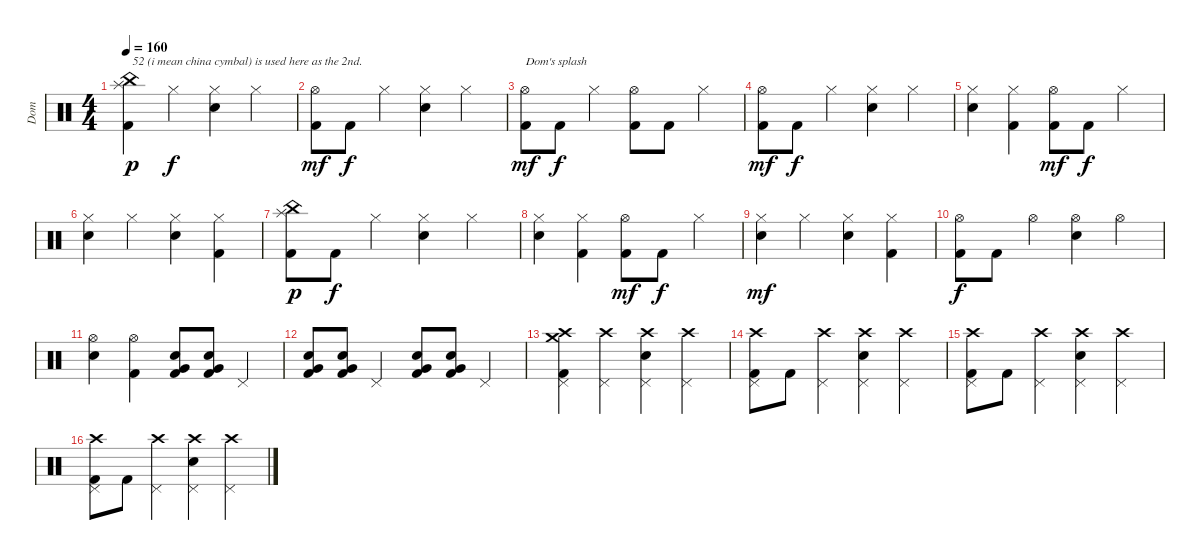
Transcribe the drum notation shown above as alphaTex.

\track ("Dom" "Dom") {instrument percussion}
\staff {score}
\articulation defaults
\ts (4 4)
\tempo 160
\clef neutral
\ks c
("Splash (hit)" "Kick (hit) 2" "China (hit)").4{txt "52 (i mean china cymbal) is used here as the 2nd." dy p} "Hi-Hat (closed)".4{dy f} ("Hi-Hat (closed)" "Snare (hit) 2").4 "Hi-Hat (closed)".4 |
("Hi-Hat (open)" "Kick (hit) 2").8{dy mf} "Kick (hit) 2".8{dy f} "Hi-Hat (closed)".4 ("Hi-Hat (closed)" "Snare (hit) 2").4 "Hi-Hat (closed)".4 |
("Hi-Hat (open)" "Kick (hit) 2").8{txt "Dom's splash" dy mf} "Kick (hit) 2".8{dy f} "Hi-Hat (closed)".4 ("Hi-Hat (open)" "Kick (hit) 2").8 "Kick (hit) 2".8 "Hi-Hat (closed)".4 |
("Hi-Hat (open)" "Kick (hit) 2").8{dy mf} "Kick (hit) 2".8{dy f} "Hi-Hat (closed)".4 ("Hi-Hat (closed)" "Snare (hit) 2").4 "Hi-Hat (closed)".4 |
("Hi-Hat (closed)" "Snare (hit) 2").4 ("Hi-Hat (closed)" "Kick (hit) 2").4 ("Hi-Hat (open)" "Kick (hit) 2").8{dy mf} "Kick (hit) 2".8{dy f} "Hi-Hat (closed)".4 |
("Hi-Hat (closed)" "Snare (hit) 2").4 "Hi-Hat (closed)".4 ("Hi-Hat (closed)" "Snare (hit) 2").4 ("Hi-Hat (closed)" "Kick (hit) 2").4 |
("Splash (hit)" "Kick (hit) 2" "China (hit)").8{dy p} "Kick (hit) 2".8{dy f} "Hi-Hat (closed)".4 ("Hi-Hat (closed)" "Snare (hit) 2").4 "Hi-Hat (closed)".4 |
("Hi-Hat (closed)" "Snare (hit) 2").4 ("Hi-Hat (closed)" "Kick (hit) 2").4 ("Hi-Hat (open)" "Kick (hit) 2").8{dy mf} "Kick (hit) 2".8{dy f} "Hi-Hat (closed)".4 |
("Hi-Hat (closed)" "Snare (hit) 2").4{dy mf} "Hi-Hat (closed)".4 ("Hi-Hat (closed)" "Snare (hit) 2").4 ("Hi-Hat (closed)" "Kick (hit) 2").4 |
("Hi-Hat (open)" "Kick (hit) 2").8{dy f} "Kick (hit) 2".8 "Hi-Hat (open)".4 ("Hi-Hat (open)" "Snare (hit) 2").4 "Hi-Hat (open)".4 |
("Hi-Hat (open)" "Snare (hit) 2").4 ("Hi-Hat (open)" "Kick (hit) 2").4 ("Very Low Tom (hit)" "Kick (hit) 2" "Snare (hit) 2").8 ("Very Low Tom (hit)" "Kick (hit) 2" "Snare (hit) 2").8 "Pedal Hi-Hat (hit)".4 |
("Very Low Tom (hit)" "Kick (hit) 2" "Snare (hit) 2").8 ("Very Low Tom (hit)" "Kick (hit) 2" "Snare (hit) 2").8 "Pedal Hi-Hat (hit)".4 ("Very Low Tom (hit)" "Kick (hit) 2" "Snare (hit) 2").8 ("Very Low Tom (hit)" "Kick (hit) 2" "Snare (hit) 2").8 "Pedal Hi-Hat (hit)".4 |
("Crash high (hit)" "Kick (hit) 2" "Crash medium (hit)" "Pedal Hi-Hat (hit)").4 ("Crash high (hit)" "Pedal Hi-Hat (hit)").4 ("Crash high (hit)" "Snare (hit) 2" "Pedal Hi-Hat (hit)").4 ("Crash high (hit)" "Pedal Hi-Hat (hit)").4 |
("Crash high (hit)" "Kick (hit) 2" "Pedal Hi-Hat (hit)").8 "Kick (hit) 2".8 ("Crash high (hit)" "Pedal Hi-Hat (hit)").4 ("Crash high (hit)" "Snare (hit) 2" "Pedal Hi-Hat (hit)").4 ("Crash high (hit)" "Pedal Hi-Hat (hit)").4 |
("Crash high (hit)" "Kick (hit) 2" "Pedal Hi-Hat (hit)").8 "Kick (hit) 2".8 ("Crash high (hit)" "Pedal Hi-Hat (hit)").4 ("Crash high (hit)" "Snare (hit) 2" "Pedal Hi-Hat (hit)").4 ("Crash high (hit)" "Pedal Hi-Hat (hit)").4 |
("Crash high (hit)" "Kick (hit) 2" "Pedal Hi-Hat (hit)").8 "Kick (hit) 2".8 ("Crash high (hit)" "Pedal Hi-Hat (hit)").4 ("Crash high (hit)" "Snare (hit) 2" "Pedal Hi-Hat (hit)").4 ("Crash high (hit)" "Pedal Hi-Hat (hit)").4
